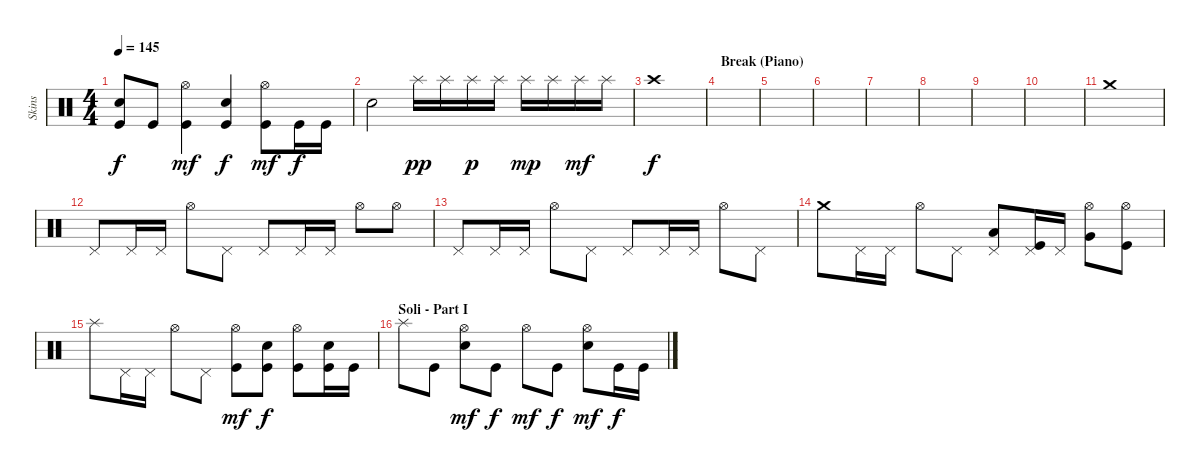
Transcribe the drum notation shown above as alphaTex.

\track ("Skins" "Skins") {instrument percussion}
\staff {score}
\articulation defaults
\ts (4 4)
\tempo 145
\clef neutral
\ks c
("Electric Snare (hit)" "Kick (hit)").8{dy f} "Kick (hit)".8 ("Hi-Hat (open)" "Kick (hit)").4{dy mf} ("Electric Snare (hit)" "Kick (hit)").4{dy f} ("Hi-Hat (open)" "Kick (hit)").8{dy mf} "Kick (hit)".16{dy f} "Kick (hit)".16 |
"Snare (hit) 2".2 "Splash (hit)".16{dy pp} "Splash (hit)".16 "Splash (hit)".16{dy p} "Splash (hit)".16 "Splash (hit)".16{dy mp} "Splash (hit)".16 "Splash (hit)".16{dy mf} "Splash (hit)".16 |
"Crash high (hit)".1{dy f} |
\section ("" "Break (Piano)")
|
|
|
|
|
|
|
"Crash medium (hit)".1 |
"Pedal Hi-Hat (hit)".8{volume 10} "Pedal Hi-Hat (hit)".16 "Pedal Hi-Hat (hit)".16 "Hi-Hat (open)".8 "Pedal Hi-Hat (hit)".8 "Pedal Hi-Hat (hit)".8 "Pedal Hi-Hat (hit)".16 "Pedal Hi-Hat (hit)".16 "Hi-Hat (open)".8 "Hi-Hat (open)".8 |
"Pedal Hi-Hat (hit)".8 "Pedal Hi-Hat (hit)".16 "Pedal Hi-Hat (hit)".16 "Hi-Hat (open)".8 "Pedal Hi-Hat (hit)".8 "Pedal Hi-Hat (hit)".8 "Pedal Hi-Hat (hit)".16 "Pedal Hi-Hat (hit)".16 "Hi-Hat (open)".8 "Pedal Hi-Hat (hit)".8 |
"Crash medium (hit)".8 "Pedal Hi-Hat (hit)".16 "Pedal Hi-Hat (hit)".16 "Hi-Hat (open)".8 "Pedal Hi-Hat (hit)".8 ("Pedal Hi-Hat (hit)" "Low Tom (hit)").8 ("Pedal Hi-Hat (hit)" "Kick (hit)").16 "Pedal Hi-Hat (hit)".16 ("Hi-Hat (open)" "Very Low Tom (hit)").8 ("Hi-Hat (open)" "Kick (hit)").8 |
"Splash (hit)".8 "Pedal Hi-Hat (hit)".16 "Pedal Hi-Hat (hit)".16 "Hi-Hat (open)".8 "Pedal Hi-Hat (hit)".8 ("Hi-Hat (open)" "Kick (hit)").8{dy mf} ("Snare (hit) 2" "Kick (hit)").8{dy f} ("Hi-Hat (open)" "Kick (hit)").8 ("Snare (hit) 2" "Kick (hit)").16 "Kick (hit)".16 |
\section ("" "Soli - Part I")
"Splash (hit)".8{volume 12} "Kick (hit)".8 ("Hi-Hat (open)" "Electric Snare (hit)").8{dy mf} "Kick (hit)".8{dy f} "Hi-Hat (open)".8{dy mf} "Kick (hit)".8{dy f} ("Hi-Hat (open)" "Electric Snare (hit)").8{dy mf} "Kick (hit)".16{dy f} "Kick (hit)".16
